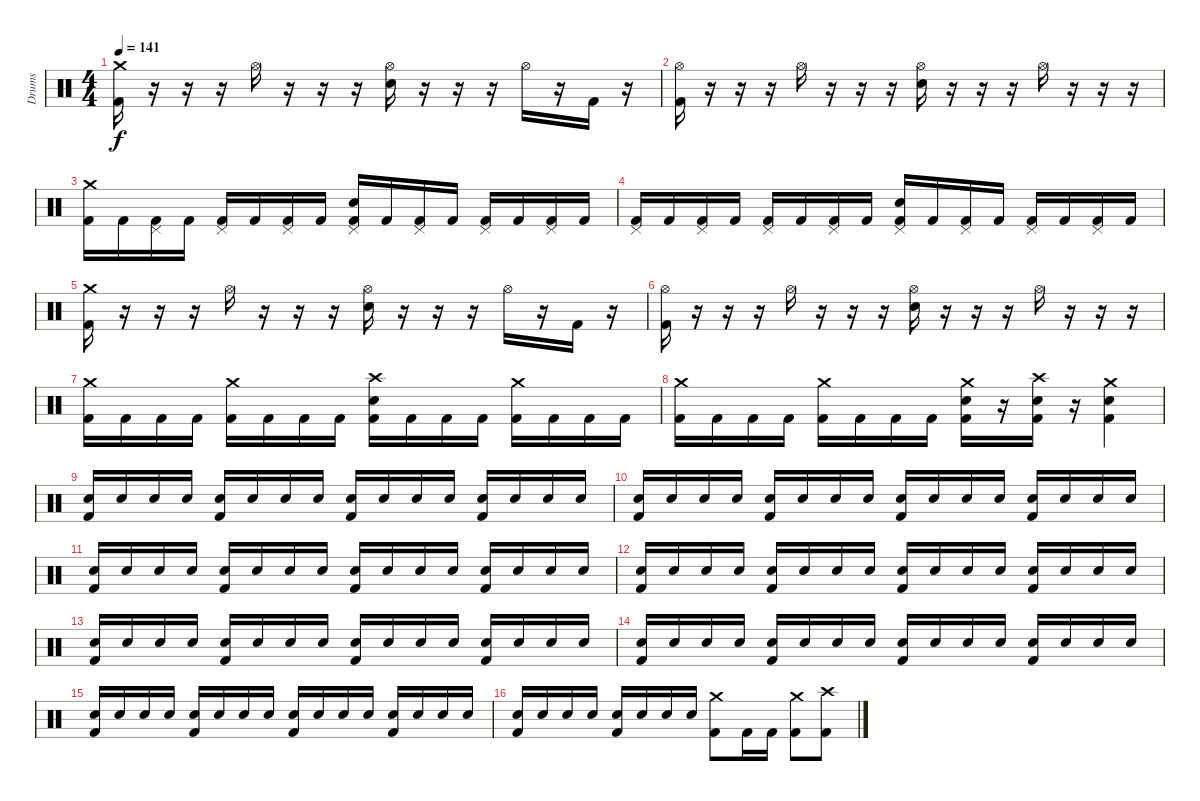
\track ("Drums" "Drums") {instrument percussion}
\staff {score}
\articulation defaults
\ts (4 4)
\tempo 141
\clef neutral
\ks c
("Crash medium (hit)" "Kick (hit) 2").16{dy f} r.16 r.16 r.16 "Hi-Hat (open)".16 r.16 r.16 r.16 ("Hi-Hat (open)" "Electric Snare (hit)").16 r.16 r.16 r.16 "Hi-Hat (open)".16 r.16 "Kick (hit) 2".16 r.16 |
("Hi-Hat (open)" "Kick (hit) 2").16 r.16 r.16 r.16 "Hi-Hat (open)".16 r.16 r.16 r.16 ("Hi-Hat (open)" "Electric Snare (hit)").16 r.16 r.16 r.16 "Hi-Hat (open)".16 r.16 r.16 r.16 |
("Crash medium (hit)" "Kick (hit) 2").16 "Kick (hit) 2".16 ("Pedal Hi-Hat (hit)" "Kick (hit) 2").16 "Kick (hit) 2".16 ("Pedal Hi-Hat (hit)" "Kick (hit) 2").16 "Kick (hit) 2".16 ("Pedal Hi-Hat (hit)" "Kick (hit) 2").16 "Kick (hit) 2".16 ("Pedal Hi-Hat (hit)" "Electric Snare (hit)" "Kick (hit) 2").16 "Kick (hit) 2".16 ("Pedal Hi-Hat (hit)" "Kick (hit) 2").16 "Kick (hit) 2".16 ("Pedal Hi-Hat (hit)" "Kick (hit) 2").16 "Kick (hit) 2".16 ("Pedal Hi-Hat (hit)" "Kick (hit) 2").16 "Kick (hit) 2".16 |
("Pedal Hi-Hat (hit)" "Kick (hit) 2").16 "Kick (hit) 2".16 ("Pedal Hi-Hat (hit)" "Kick (hit) 2").16 "Kick (hit) 2".16 ("Pedal Hi-Hat (hit)" "Kick (hit) 2").16 "Kick (hit) 2".16 ("Pedal Hi-Hat (hit)" "Kick (hit) 2").16 "Kick (hit) 2".16 ("Pedal Hi-Hat (hit)" "Electric Snare (hit)" "Kick (hit) 2").16 "Kick (hit) 2".16 ("Pedal Hi-Hat (hit)" "Kick (hit) 2").16 "Kick (hit) 2".16 ("Pedal Hi-Hat (hit)" "Kick (hit) 2").16 "Kick (hit) 2".16 ("Pedal Hi-Hat (hit)" "Kick (hit) 2").16 "Kick (hit) 2".16 |
("Crash medium (hit)" "Kick (hit) 2").16 r.16 r.16 r.16 "Hi-Hat (open)".16 r.16 r.16 r.16 ("Hi-Hat (open)" "Electric Snare (hit)").16 r.16 r.16 r.16 "Hi-Hat (open)".16 r.16 "Kick (hit) 2".16 r.16 |
("Hi-Hat (open)" "Kick (hit) 2").16 r.16 r.16 r.16 "Hi-Hat (open)".16 r.16 r.16 r.16 ("Hi-Hat (open)" "Electric Snare (hit)").16 r.16 r.16 r.16 "Hi-Hat (open)".16 r.16 r.16 r.16 |
("Crash medium (hit)" "Kick (hit) 2").16 "Kick (hit) 2".16 "Kick (hit) 2".16 "Kick (hit) 2".16 ("Crash medium (hit)" "Kick (hit) 2").16 "Kick (hit) 2".16 "Kick (hit) 2".16 "Kick (hit) 2".16 ("Crash high (hit)" "Electric Snare (hit)" "Kick (hit) 2").16 "Kick (hit) 2".16 "Kick (hit) 2".16 "Kick (hit) 2".16 ("Crash medium (hit)" "Kick (hit) 2").16 "Kick (hit) 2".16 "Kick (hit) 2".16 "Kick (hit) 2".16 |
("Crash medium (hit)" "Kick (hit) 2").16 "Kick (hit) 2".16 "Kick (hit) 2".16 "Kick (hit) 2".16 ("Crash medium (hit)" "Kick (hit) 2").16 "Kick (hit) 2".16 "Kick (hit) 2".16 "Kick (hit) 2".16 ("Crash medium (hit)" "Electric Snare (hit)" "Kick (hit) 2").16 r.16 ("Crash high (hit)" "Electric Snare (hit)" "Kick (hit) 2").16 r.16 ("Crash medium (hit)" "Electric Snare (hit)" "Kick (hit) 2").4 |
\section ("" "")
("Electric Snare (hit)" "Kick (hit) 2").16 "Electric Snare (hit)".16 "Electric Snare (hit)".16 "Electric Snare (hit)".16 ("Electric Snare (hit)" "Kick (hit) 2").16 "Electric Snare (hit)".16 "Electric Snare (hit)".16 "Electric Snare (hit)".16 ("Electric Snare (hit)" "Kick (hit) 2").16 "Electric Snare (hit)".16 "Electric Snare (hit)".16 "Electric Snare (hit)".16 ("Electric Snare (hit)" "Kick (hit) 2").16 "Electric Snare (hit)".16 "Electric Snare (hit)".16 "Electric Snare (hit)".16 |
("Electric Snare (hit)" "Kick (hit) 2").16 "Electric Snare (hit)".16 "Electric Snare (hit)".16 "Electric Snare (hit)".16 ("Electric Snare (hit)" "Kick (hit) 2").16 "Electric Snare (hit)".16 "Electric Snare (hit)".16 "Electric Snare (hit)".16 ("Electric Snare (hit)" "Kick (hit) 2").16 "Electric Snare (hit)".16 "Electric Snare (hit)".16 "Electric Snare (hit)".16 ("Electric Snare (hit)" "Kick (hit) 2").16 "Electric Snare (hit)".16 "Electric Snare (hit)".16 "Electric Snare (hit)".16 |
("Electric Snare (hit)" "Kick (hit) 2").16 "Electric Snare (hit)".16 "Electric Snare (hit)".16 "Electric Snare (hit)".16 ("Electric Snare (hit)" "Kick (hit) 2").16 "Electric Snare (hit)".16 "Electric Snare (hit)".16 "Electric Snare (hit)".16 ("Electric Snare (hit)" "Kick (hit) 2").16 "Electric Snare (hit)".16 "Electric Snare (hit)".16 "Electric Snare (hit)".16 ("Electric Snare (hit)" "Kick (hit) 2").16 "Electric Snare (hit)".16 "Electric Snare (hit)".16 "Electric Snare (hit)".16 |
("Electric Snare (hit)" "Kick (hit) 2").16 "Electric Snare (hit)".16 "Electric Snare (hit)".16 "Electric Snare (hit)".16 ("Electric Snare (hit)" "Kick (hit) 2").16 "Electric Snare (hit)".16 "Electric Snare (hit)".16 "Electric Snare (hit)".16 ("Electric Snare (hit)" "Kick (hit) 2").16 "Electric Snare (hit)".16 "Electric Snare (hit)".16 "Electric Snare (hit)".16 ("Electric Snare (hit)" "Kick (hit) 2").16 "Electric Snare (hit)".16 "Electric Snare (hit)".16 "Electric Snare (hit)".16 |
("Electric Snare (hit)" "Kick (hit) 2").16 "Electric Snare (hit)".16 "Electric Snare (hit)".16 "Electric Snare (hit)".16 ("Electric Snare (hit)" "Kick (hit) 2").16 "Electric Snare (hit)".16 "Electric Snare (hit)".16 "Electric Snare (hit)".16 ("Electric Snare (hit)" "Kick (hit) 2").16 "Electric Snare (hit)".16 "Electric Snare (hit)".16 "Electric Snare (hit)".16 ("Electric Snare (hit)" "Kick (hit) 2").16 "Electric Snare (hit)".16 "Electric Snare (hit)".16 "Electric Snare (hit)".16 |
("Electric Snare (hit)" "Kick (hit) 2").16 "Electric Snare (hit)".16 "Electric Snare (hit)".16 "Electric Snare (hit)".16 ("Electric Snare (hit)" "Kick (hit) 2").16 "Electric Snare (hit)".16 "Electric Snare (hit)".16 "Electric Snare (hit)".16 ("Electric Snare (hit)" "Kick (hit) 2").16 "Electric Snare (hit)".16 "Electric Snare (hit)".16 "Electric Snare (hit)".16 ("Electric Snare (hit)" "Kick (hit) 2").16 "Electric Snare (hit)".16 "Electric Snare (hit)".16 "Electric Snare (hit)".16 |
("Electric Snare (hit)" "Kick (hit) 2").16 "Electric Snare (hit)".16 "Electric Snare (hit)".16 "Electric Snare (hit)".16 ("Electric Snare (hit)" "Kick (hit) 2").16 "Electric Snare (hit)".16 "Electric Snare (hit)".16 "Electric Snare (hit)".16 ("Electric Snare (hit)" "Kick (hit) 2").16 "Electric Snare (hit)".16 "Electric Snare (hit)".16 "Electric Snare (hit)".16 ("Electric Snare (hit)" "Kick (hit) 2").16 "Electric Snare (hit)".16 "Electric Snare (hit)".16 "Electric Snare (hit)".16 |
("Electric Snare (hit)" "Kick (hit) 2").16 "Electric Snare (hit)".16 "Electric Snare (hit)".16 "Electric Snare (hit)".16 ("Electric Snare (hit)" "Kick (hit) 2").16 "Electric Snare (hit)".16 "Electric Snare (hit)".16 "Electric Snare (hit)".16 ("Crash medium (hit)" "Kick (hit) 2").8 "Kick (hit) 2".16 "Kick (hit) 2".16 ("Crash medium (hit)" "Kick (hit) 2").8 ("Crash high (hit)" "Kick (hit) 2").8
